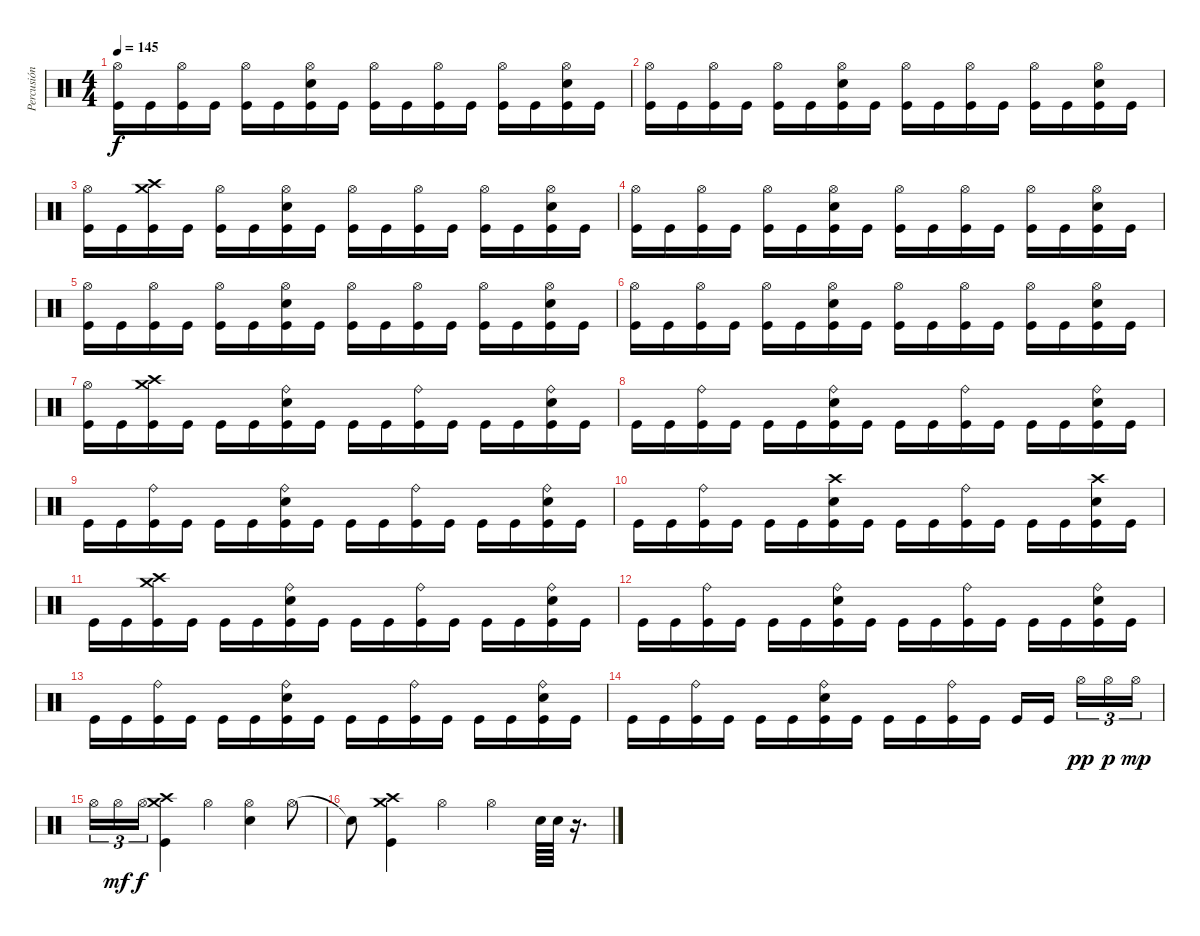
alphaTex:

\track ("Percusión" "Percusión") {instrument percussion}
\staff {score}
\articulation defaults
\ts (4 4)
\tempo 145
\clef neutral
\ks c
("Hi-Hat (open)" "Kick (hit)").16{dy f} "Kick (hit)".16 ("Hi-Hat (open)" "Kick (hit)").16 "Kick (hit)".16 ("Hi-Hat (open)" "Kick (hit)").16 "Kick (hit)".16 ("Hi-Hat (open)" "Snare (hit) 2" "Kick (hit)").16 "Kick (hit)".16 ("Hi-Hat (open)" "Kick (hit)").16 "Kick (hit)".16 ("Hi-Hat (open)" "Kick (hit)").16 "Kick (hit)".16 ("Hi-Hat (open)" "Kick (hit)").16 "Kick (hit)".16 ("Hi-Hat (open)" "Snare (hit) 2" "Kick (hit)").16 "Kick (hit)".16 |
("Hi-Hat (open)" "Kick (hit)").16 "Kick (hit)".16 ("Hi-Hat (open)" "Kick (hit)").16 "Kick (hit)".16 ("Hi-Hat (open)" "Kick (hit)").16 "Kick (hit)".16 ("Hi-Hat (open)" "Snare (hit) 2" "Kick (hit)").16 "Kick (hit)".16 ("Hi-Hat (open)" "Kick (hit)").16 "Kick (hit)".16 ("Hi-Hat (open)" "Kick (hit)").16 "Kick (hit)".16 ("Hi-Hat (open)" "Kick (hit)").16 "Kick (hit)".16 ("Hi-Hat (open)" "Snare (hit) 2" "Kick (hit)").16 "Kick (hit)".16 |
("Hi-Hat (open)" "Kick (hit)").16 "Kick (hit)".16 ("Crash medium (hit)" "Crash high (hit)" "Kick (hit)").16 "Kick (hit)".16 ("Hi-Hat (open)" "Kick (hit)").16 "Kick (hit)".16 ("Hi-Hat (open)" "Snare (hit) 2" "Kick (hit)").16 "Kick (hit)".16 ("Hi-Hat (open)" "Kick (hit)").16 "Kick (hit)".16 ("Hi-Hat (open)" "Kick (hit)").16 "Kick (hit)".16 ("Hi-Hat (open)" "Kick (hit)").16 "Kick (hit)".16 ("Hi-Hat (open)" "Snare (hit) 2" "Kick (hit)").16 "Kick (hit)".16 |
("Hi-Hat (open)" "Kick (hit)").16 "Kick (hit)".16 ("Hi-Hat (open)" "Kick (hit)").16 "Kick (hit)".16 ("Hi-Hat (open)" "Kick (hit)").16 "Kick (hit)".16 ("Hi-Hat (open)" "Snare (hit) 2" "Kick (hit)").16 "Kick (hit)".16 ("Hi-Hat (open)" "Kick (hit)").16 "Kick (hit)".16 ("Hi-Hat (open)" "Kick (hit)").16 "Kick (hit)".16 ("Hi-Hat (open)" "Kick (hit)").16 "Kick (hit)".16 ("Hi-Hat (open)" "Snare (hit) 2" "Kick (hit)").16 "Kick (hit)".16 |
("Hi-Hat (open)" "Kick (hit)").16 "Kick (hit)".16 ("Hi-Hat (open)" "Kick (hit)").16 "Kick (hit)".16 ("Hi-Hat (open)" "Kick (hit)").16 "Kick (hit)".16 ("Hi-Hat (open)" "Snare (hit) 2" "Kick (hit)").16 "Kick (hit)".16 ("Hi-Hat (open)" "Kick (hit)").16 "Kick (hit)".16 ("Hi-Hat (open)" "Kick (hit)").16 "Kick (hit)".16 ("Hi-Hat (open)" "Kick (hit)").16 "Kick (hit)".16 ("Hi-Hat (open)" "Snare (hit) 2" "Kick (hit)").16 "Kick (hit)".16 |
("Hi-Hat (open)" "Kick (hit)").16 "Kick (hit)".16 ("Hi-Hat (open)" "Kick (hit)").16 "Kick (hit)".16 ("Hi-Hat (open)" "Kick (hit)").16 "Kick (hit)".16 ("Hi-Hat (open)" "Snare (hit) 2" "Kick (hit)").16 "Kick (hit)".16 ("Hi-Hat (open)" "Kick (hit)").16 "Kick (hit)".16 ("Hi-Hat (open)" "Kick (hit)").16 "Kick (hit)".16 ("Hi-Hat (open)" "Kick (hit)").16 "Kick (hit)".16 ("Hi-Hat (open)" "Snare (hit) 2" "Kick (hit)").16 "Kick (hit)".16 |
("Hi-Hat (open)" "Kick (hit)").16 "Kick (hit)".16 ("Crash medium (hit)" "Crash high (hit)" "Kick (hit)").16 "Kick (hit)".16 "Kick (hit)".16 "Kick (hit)".16 ("Ride (bell)" "Snare (hit) 2" "Kick (hit)").16 "Kick (hit)".16 "Kick (hit)".16 "Kick (hit)".16 ("Ride (bell)" "Kick (hit)").16 "Kick (hit)".16 "Kick (hit)".16 "Kick (hit)".16 ("Ride (bell)" "Snare (hit) 2" "Kick (hit)").16 "Kick (hit)".16 |
"Kick (hit)".16 "Kick (hit)".16 ("Ride (bell)" "Kick (hit)").16 "Kick (hit)".16 "Kick (hit)".16 "Kick (hit)".16 ("Ride (bell)" "Snare (hit) 2" "Kick (hit)").16 "Kick (hit)".16 "Kick (hit)".16 "Kick (hit)".16 ("Ride (bell)" "Kick (hit)").16 "Kick (hit)".16 "Kick (hit)".16 "Kick (hit)".16 ("Ride (bell)" "Snare (hit) 2" "Kick (hit)").16 "Kick (hit)".16 |
"Kick (hit)".16 "Kick (hit)".16 ("Ride (bell)" "Kick (hit)").16 "Kick (hit)".16 "Kick (hit)".16 "Kick (hit)".16 ("Ride (bell)" "Snare (hit) 2" "Kick (hit)").16 "Kick (hit)".16 "Kick (hit)".16 "Kick (hit)".16 ("Ride (bell)" "Kick (hit)").16 "Kick (hit)".16 "Kick (hit)".16 "Kick (hit)".16 ("Ride (bell)" "Snare (hit) 2" "Kick (hit)").16 "Kick (hit)".16 |
"Kick (hit)".16 "Kick (hit)".16 ("Ride (bell)" "Kick (hit)").16 "Kick (hit)".16 "Kick (hit)".16 "Kick (hit)".16 ("Crash high (hit)" "Snare (hit) 2" "Kick (hit)").16 "Kick (hit)".16 "Kick (hit)".16 "Kick (hit)".16 ("Ride (bell)" "Kick (hit)").16 "Kick (hit)".16 "Kick (hit)".16 "Kick (hit)".16 ("Crash high (hit)" "Snare (hit) 2" "Kick (hit)").16 "Kick (hit)".16 |
"Kick (hit)".16 "Kick (hit)".16 ("Crash medium (hit)" "Crash high (hit)" "Kick (hit)").16 "Kick (hit)".16 "Kick (hit)".16 "Kick (hit)".16 ("Ride (bell)" "Snare (hit) 2" "Kick (hit)").16 "Kick (hit)".16 "Kick (hit)".16 "Kick (hit)".16 ("Ride (bell)" "Kick (hit)").16 "Kick (hit)".16 "Kick (hit)".16 "Kick (hit)".16 ("Ride (bell)" "Snare (hit) 2" "Kick (hit)").16 "Kick (hit)".16 |
"Kick (hit)".16 "Kick (hit)".16 ("Ride (bell)" "Kick (hit)").16 "Kick (hit)".16 "Kick (hit)".16 "Kick (hit)".16 ("Ride (bell)" "Snare (hit) 2" "Kick (hit)").16 "Kick (hit)".16 "Kick (hit)".16 "Kick (hit)".16 ("Ride (bell)" "Kick (hit)").16 "Kick (hit)".16 "Kick (hit)".16 "Kick (hit)".16 ("Ride (bell)" "Snare (hit) 2" "Kick (hit)").16 "Kick (hit)".16 |
"Kick (hit)".16 "Kick (hit)".16 ("Ride (bell)" "Kick (hit)").16 "Kick (hit)".16 "Kick (hit)".16 "Kick (hit)".16 ("Ride (bell)" "Snare (hit) 2" "Kick (hit)").16 "Kick (hit)".16 "Kick (hit)".16 "Kick (hit)".16 ("Ride (bell)" "Kick (hit)").16 "Kick (hit)".16 "Kick (hit)".16 "Kick (hit)".16 ("Ride (bell)" "Snare (hit) 2" "Kick (hit)").16 "Kick (hit)".16 |
"Kick (hit)".16 "Kick (hit)".16 ("Ride (bell)" "Kick (hit)").16 "Kick (hit)".16 "Kick (hit)".16 "Kick (hit)".16 ("Ride (bell)" "Snare (hit) 2" "Kick (hit)").16 "Kick (hit)".16 "Kick (hit)".16 "Kick (hit)".16 ("Ride (bell)" "Kick (hit)").16 "Kick (hit)".16 "Kick (hit)".16 "Kick (hit)".16 "Hi-Hat (open)".16{tu (3 2) dy pp} "Hi-Hat (open)".16{tu (3 2) dy p} "Hi-Hat (open)".16{tu (3 2) dy mp} |
"Hi-Hat (open)".16{tu (3 2)} "Hi-Hat (open)".16{tu (3 2) dy mf} "Hi-Hat (open)".16{tu (3 2) dy f} ("Crash high (hit)" "Crash medium (hit)" "Kick (hit)").4 "Hi-Hat (open)".4 ("Hi-Hat (open)" "Snare (hit) 2").4 "Hi-Hat (open)".8 |
"Snare (hit)"{t}.8 ("Crash high (hit)" "Crash medium (hit)" "Kick (hit)").4 "Hi-Hat (open)".4 "Hi-Hat (open)".4 "Snare (hit) 2".64 "Snare (hit) 2".64 r.16{d}
